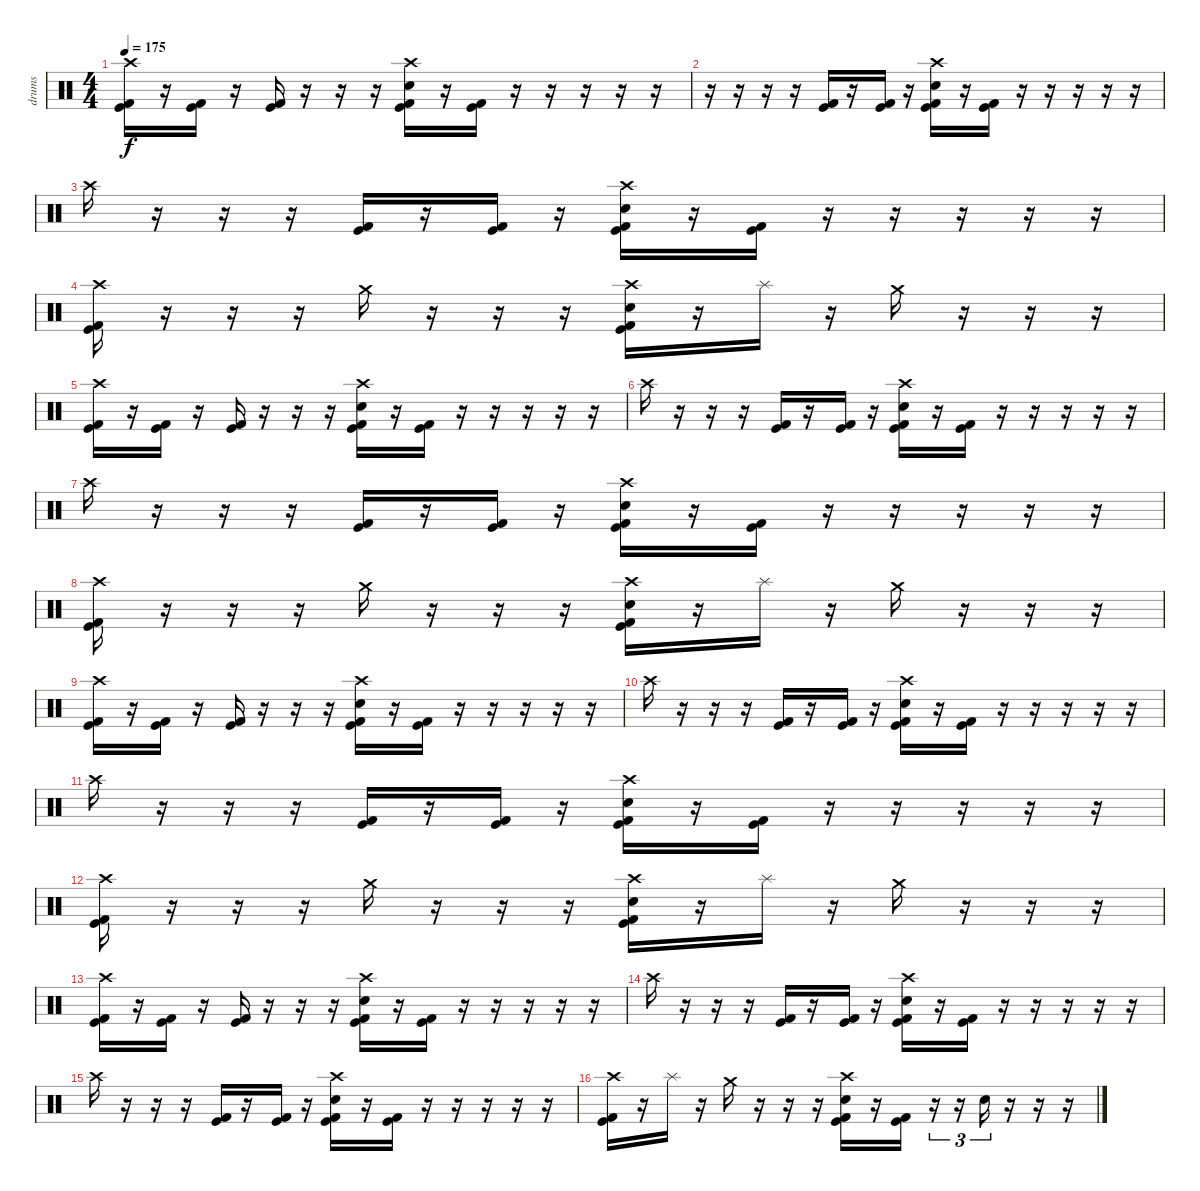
\track ("drums" "drums") {instrument percussion}
\staff {score}
\articulation defaults
\ts (4 4)
\tempo 175
\clef neutral
\ks c
("Crash high (hit)" "Kick (hit)" "Kick (hit) 2").16{dy f} r.16 ("Kick (hit)" "Kick (hit) 2").16 r.16 ("Kick (hit)" "Kick (hit) 2").16 r.16 r.16 r.16 ("Crash high (hit)" "Electric Snare (hit)" "Kick (hit)" "Kick (hit) 2").16 r.16 ("Kick (hit)" "Kick (hit) 2").16 r.16 r.16 r.16 r.16 r.16 |
r.16 r.16 r.16 r.16 ("Kick (hit)" "Kick (hit) 2").16 r.16 ("Kick (hit)" "Kick (hit) 2").16 r.16 ("Crash high (hit)" "Electric Snare (hit)" "Kick (hit)" "Kick (hit) 2").16 r.16 ("Kick (hit)" "Kick (hit) 2").16 r.16 r.16 r.16 r.16 r.16 |
"Crash high (hit)".16 r.16 r.16 r.16 ("Kick (hit)" "Kick (hit) 2").16 r.16 ("Kick (hit)" "Kick (hit) 2").16 r.16 ("Crash high (hit)" "Electric Snare (hit)" "Kick (hit)" "Kick (hit) 2").16 r.16 ("Kick (hit)" "Kick (hit) 2").16 r.16 r.16 r.16 r.16 r.16 |
("Crash high (hit)" "Kick (hit)" "Kick (hit) 2").16 r.16 r.16 r.16 "Crash medium (hit)".16 r.16 r.16 r.16 ("Crash high (hit)" "Electric Snare (hit)" "Kick (hit)" "Kick (hit) 2").16 r.16 "Splash (hit)".16 r.16 "Crash medium (hit)".16 r.16 r.16 r.16 |
("Crash high (hit)" "Kick (hit)" "Kick (hit) 2").16 r.16 ("Kick (hit)" "Kick (hit) 2").16 r.16 ("Kick (hit)" "Kick (hit) 2").16 r.16 r.16 r.16 ("Crash high (hit)" "Electric Snare (hit)" "Kick (hit)" "Kick (hit) 2").16 r.16 ("Kick (hit)" "Kick (hit) 2").16 r.16 r.16 r.16 r.16 r.16 |
"Crash high (hit)".16 r.16 r.16 r.16 ("Kick (hit)" "Kick (hit) 2").16 r.16 ("Kick (hit)" "Kick (hit) 2").16 r.16 ("Crash high (hit)" "Electric Snare (hit)" "Kick (hit)" "Kick (hit) 2").16 r.16 ("Kick (hit)" "Kick (hit) 2").16 r.16 r.16 r.16 r.16 r.16 |
"Crash high (hit)".16 r.16 r.16 r.16 ("Kick (hit)" "Kick (hit) 2").16 r.16 ("Kick (hit)" "Kick (hit) 2").16 r.16 ("Crash high (hit)" "Electric Snare (hit)" "Kick (hit)" "Kick (hit) 2").16 r.16 ("Kick (hit)" "Kick (hit) 2").16 r.16 r.16 r.16 r.16 r.16 |
("Crash high (hit)" "Kick (hit)" "Kick (hit) 2").16 r.16 r.16 r.16 "Crash medium (hit)".16 r.16 r.16 r.16 ("Crash high (hit)" "Electric Snare (hit)" "Kick (hit)" "Kick (hit) 2").16 r.16 "Splash (hit)".16 r.16 "Crash medium (hit)".16 r.16 r.16 r.16 |
("Crash high (hit)" "Kick (hit)" "Kick (hit) 2").16 r.16 ("Kick (hit)" "Kick (hit) 2").16 r.16 ("Kick (hit)" "Kick (hit) 2").16 r.16 r.16 r.16 ("Crash high (hit)" "Electric Snare (hit)" "Kick (hit)" "Kick (hit) 2").16 r.16 ("Kick (hit)" "Kick (hit) 2").16 r.16 r.16 r.16 r.16 r.16 |
"Crash high (hit)".16 r.16 r.16 r.16 ("Kick (hit)" "Kick (hit) 2").16 r.16 ("Kick (hit)" "Kick (hit) 2").16 r.16 ("Crash high (hit)" "Electric Snare (hit)" "Kick (hit)" "Kick (hit) 2").16 r.16 ("Kick (hit)" "Kick (hit) 2").16 r.16 r.16 r.16 r.16 r.16 |
"Crash high (hit)".16 r.16 r.16 r.16 ("Kick (hit)" "Kick (hit) 2").16 r.16 ("Kick (hit)" "Kick (hit) 2").16 r.16 ("Crash high (hit)" "Electric Snare (hit)" "Kick (hit)" "Kick (hit) 2").16 r.16 ("Kick (hit)" "Kick (hit) 2").16 r.16 r.16 r.16 r.16 r.16 |
("Crash high (hit)" "Kick (hit)" "Kick (hit) 2").16 r.16 r.16 r.16 "Crash medium (hit)".16 r.16 r.16 r.16 ("Crash high (hit)" "Electric Snare (hit)" "Kick (hit)" "Kick (hit) 2").16 r.16 "Splash (hit)".16 r.16 "Crash medium (hit)".16 r.16 r.16 r.16 |
("Crash high (hit)" "Kick (hit)" "Kick (hit) 2").16 r.16 ("Kick (hit)" "Kick (hit) 2").16 r.16 ("Kick (hit)" "Kick (hit) 2").16 r.16 r.16 r.16 ("Crash high (hit)" "Electric Snare (hit)" "Kick (hit)" "Kick (hit) 2").16 r.16 ("Kick (hit)" "Kick (hit) 2").16 r.16 r.16 r.16 r.16 r.16 |
"Crash high (hit)".16 r.16 r.16 r.16 ("Kick (hit)" "Kick (hit) 2").16 r.16 ("Kick (hit)" "Kick (hit) 2").16 r.16 ("Crash high (hit)" "Electric Snare (hit)" "Kick (hit)" "Kick (hit) 2").16 r.16 ("Kick (hit)" "Kick (hit) 2").16 r.16 r.16 r.16 r.16 r.16 |
"Crash high (hit)".16 r.16 r.16 r.16 ("Kick (hit)" "Kick (hit) 2").16 r.16 ("Kick (hit)" "Kick (hit) 2").16 r.16 ("Crash high (hit)" "Electric Snare (hit)" "Kick (hit)" "Kick (hit) 2").16 r.16 ("Kick (hit)" "Kick (hit) 2").16 r.16 r.16 r.16 r.16 r.16 |
("Crash high (hit)" "Kick (hit)" "Kick (hit) 2").16 r.16 "Splash (hit)".16 r.16 "Crash medium (hit)".16 r.16 r.16 r.16 ("Crash high (hit)" "Electric Snare (hit)" "Kick (hit)" "Kick (hit) 2").16 r.16 ("Kick (hit)" "Kick (hit) 2").16 r.16{tu (3 2)} r.16{tu (3 2)} "Electric Snare (hit)".16{tu (3 2)} r.16 r.16 r.16
